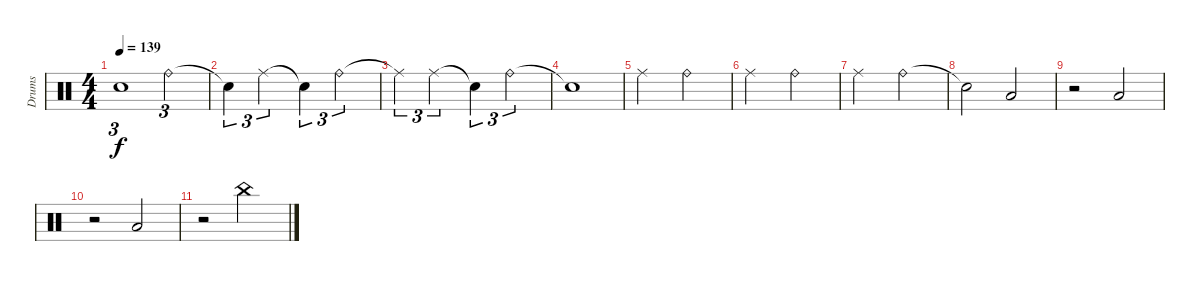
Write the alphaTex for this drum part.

\track ("Drums" "Drums") {instrument percussion}
\staff {score}
\articulation defaults
\ts (4 4)
\tempo 139
\clef neutral
\ks c "Snare (hit)"{t}.1{tu (3 2) dy f} "Ride (bell)".2{tu (3 2)}
|
"Snare (hit)"{t}.4{tu (3 2)} "Ride (middle)".2{tu (3 2)} "Snare (hit)"{t}.4{tu (3 2)} "Ride (bell)".2{tu (3 2)} |
"Ride (middle)"{t}.4{tu (3 2)} "Ride (middle)".2{tu (3 2)} "Snare (hit)"{t}.4{tu (3 2)} "Ride (bell)".2{tu (3 2)} |
"Snare (hit)"{t}.1 |
"Ride (middle)".2 "Ride (bell)".2 |
"Ride (middle)".2 "Ride (bell)".2 |
"Ride (middle)".2 "Ride (bell)".2 |
"Snare (hit)"{t}.2 "Low Tom (hit)".2 |
r.2 "Low Tom (hit)".2 |
r.2 "Low Tom (hit)".2 |
r.2 "China (hit)".2
